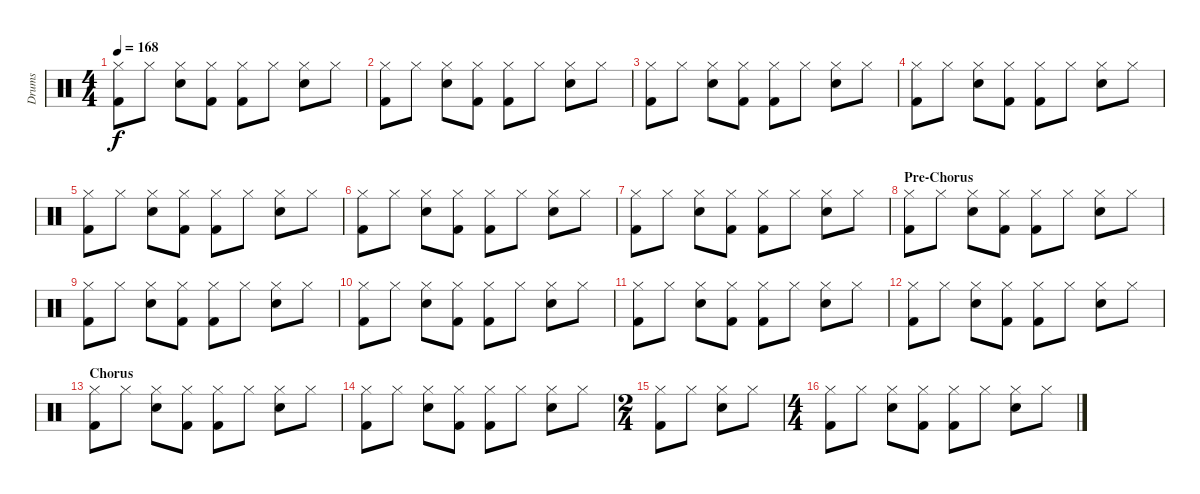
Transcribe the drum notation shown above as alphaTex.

\track ("Drums" "Drums") {instrument percussion}
\staff {score}
\articulation defaults
\ts (4 4)
\tempo 168
\clef neutral
\ks c
("Kick (hit) 2" "Hi-Hat (closed)").8{dy f} "Hi-Hat (closed)".8 ("Snare (hit) 2" "Hi-Hat (closed)").8 ("Kick (hit) 2" "Hi-Hat (closed)").8 ("Kick (hit) 2" "Hi-Hat (closed)").8 "Hi-Hat (closed)".8 ("Snare (hit) 2" "Hi-Hat (closed)").8 "Hi-Hat (closed)".8 |
("Kick (hit) 2" "Hi-Hat (closed)").8 "Hi-Hat (closed)".8 ("Snare (hit) 2" "Hi-Hat (closed)").8 ("Kick (hit) 2" "Hi-Hat (closed)").8 ("Kick (hit) 2" "Hi-Hat (closed)").8 "Hi-Hat (closed)".8 ("Snare (hit) 2" "Hi-Hat (closed)").8 "Hi-Hat (closed)".8 |
("Kick (hit) 2" "Hi-Hat (closed)").8 "Hi-Hat (closed)".8 ("Snare (hit) 2" "Hi-Hat (closed)").8 ("Kick (hit) 2" "Hi-Hat (closed)").8 ("Kick (hit) 2" "Hi-Hat (closed)").8 "Hi-Hat (closed)".8 ("Snare (hit) 2" "Hi-Hat (closed)").8 "Hi-Hat (closed)".8 |
("Kick (hit) 2" "Hi-Hat (closed)").8 "Hi-Hat (closed)".8 ("Snare (hit) 2" "Hi-Hat (closed)").8 ("Kick (hit) 2" "Hi-Hat (closed)").8 ("Kick (hit) 2" "Hi-Hat (closed)").8 "Hi-Hat (closed)".8 ("Snare (hit) 2" "Hi-Hat (closed)").8 "Hi-Hat (closed)".8 |
("Kick (hit) 2" "Hi-Hat (closed)").8 "Hi-Hat (closed)".8 ("Snare (hit) 2" "Hi-Hat (closed)").8 ("Kick (hit) 2" "Hi-Hat (closed)").8 ("Kick (hit) 2" "Hi-Hat (closed)").8 "Hi-Hat (closed)".8 ("Snare (hit) 2" "Hi-Hat (closed)").8 "Hi-Hat (closed)".8 |
("Kick (hit) 2" "Hi-Hat (closed)").8 "Hi-Hat (closed)".8 ("Snare (hit) 2" "Hi-Hat (closed)").8 ("Kick (hit) 2" "Hi-Hat (closed)").8 ("Kick (hit) 2" "Hi-Hat (closed)").8 "Hi-Hat (closed)".8 ("Snare (hit) 2" "Hi-Hat (closed)").8 "Hi-Hat (closed)".8 |
("Kick (hit) 2" "Hi-Hat (closed)").8 "Hi-Hat (closed)".8 ("Snare (hit) 2" "Hi-Hat (closed)").8 ("Kick (hit) 2" "Hi-Hat (closed)").8 ("Kick (hit) 2" "Hi-Hat (closed)").8 "Hi-Hat (closed)".8 ("Snare (hit) 2" "Hi-Hat (closed)").8 "Hi-Hat (closed)".8 |
\section ("" "Pre-Chorus")
("Kick (hit) 2" "Hi-Hat (closed)").8 "Hi-Hat (closed)".8 ("Snare (hit) 2" "Hi-Hat (closed)").8 ("Kick (hit) 2" "Hi-Hat (closed)").8 ("Kick (hit) 2" "Hi-Hat (closed)").8 "Hi-Hat (closed)".8 ("Snare (hit) 2" "Hi-Hat (closed)").8 "Hi-Hat (closed)".8 |
("Kick (hit) 2" "Hi-Hat (closed)").8 "Hi-Hat (closed)".8 ("Snare (hit) 2" "Hi-Hat (closed)").8 ("Kick (hit) 2" "Hi-Hat (closed)").8 ("Kick (hit) 2" "Hi-Hat (closed)").8 "Hi-Hat (closed)".8 ("Snare (hit) 2" "Hi-Hat (closed)").8 "Hi-Hat (closed)".8 |
("Kick (hit) 2" "Hi-Hat (closed)").8 "Hi-Hat (closed)".8 ("Snare (hit) 2" "Hi-Hat (closed)").8 ("Kick (hit) 2" "Hi-Hat (closed)").8 ("Kick (hit) 2" "Hi-Hat (closed)").8 "Hi-Hat (closed)".8 ("Snare (hit) 2" "Hi-Hat (closed)").8 "Hi-Hat (closed)".8 |
("Kick (hit) 2" "Hi-Hat (closed)").8 "Hi-Hat (closed)".8 ("Snare (hit) 2" "Hi-Hat (closed)").8 ("Kick (hit) 2" "Hi-Hat (closed)").8 ("Kick (hit) 2" "Hi-Hat (closed)").8 "Hi-Hat (closed)".8 ("Snare (hit) 2" "Hi-Hat (closed)").8 "Hi-Hat (closed)".8 |
("Kick (hit) 2" "Hi-Hat (closed)").8 "Hi-Hat (closed)".8 ("Snare (hit) 2" "Hi-Hat (closed)").8 ("Kick (hit) 2" "Hi-Hat (closed)").8 ("Kick (hit) 2" "Hi-Hat (closed)").8 "Hi-Hat (closed)".8 ("Snare (hit) 2" "Hi-Hat (closed)").8 "Hi-Hat (closed)".8 |
\section ("" "Chorus")
("Kick (hit) 2" "Hi-Hat (closed)").8 "Hi-Hat (closed)".8 ("Snare (hit) 2" "Hi-Hat (closed)").8 ("Kick (hit) 2" "Hi-Hat (closed)").8 ("Kick (hit) 2" "Hi-Hat (closed)").8 "Hi-Hat (closed)".8 ("Snare (hit) 2" "Hi-Hat (closed)").8 "Hi-Hat (closed)".8 |
("Kick (hit) 2" "Hi-Hat (closed)").8 "Hi-Hat (closed)".8 ("Snare (hit) 2" "Hi-Hat (closed)").8 ("Kick (hit) 2" "Hi-Hat (closed)").8 ("Kick (hit) 2" "Hi-Hat (closed)").8 "Hi-Hat (closed)".8 ("Snare (hit) 2" "Hi-Hat (closed)").8 "Hi-Hat (closed)".8 |
\ts (2 4)
("Kick (hit) 2" "Hi-Hat (closed)").8 "Hi-Hat (closed)".8 ("Snare (hit) 2" "Hi-Hat (closed)").8 "Hi-Hat (closed)".8 |
\ts (4 4)
("Kick (hit) 2" "Hi-Hat (closed)").8 "Hi-Hat (closed)".8 ("Snare (hit) 2" "Hi-Hat (closed)").8 ("Kick (hit) 2" "Hi-Hat (closed)").8 ("Kick (hit) 2" "Hi-Hat (closed)").8 "Hi-Hat (closed)".8 ("Snare (hit) 2" "Hi-Hat (closed)").8 "Hi-Hat (closed)".8
